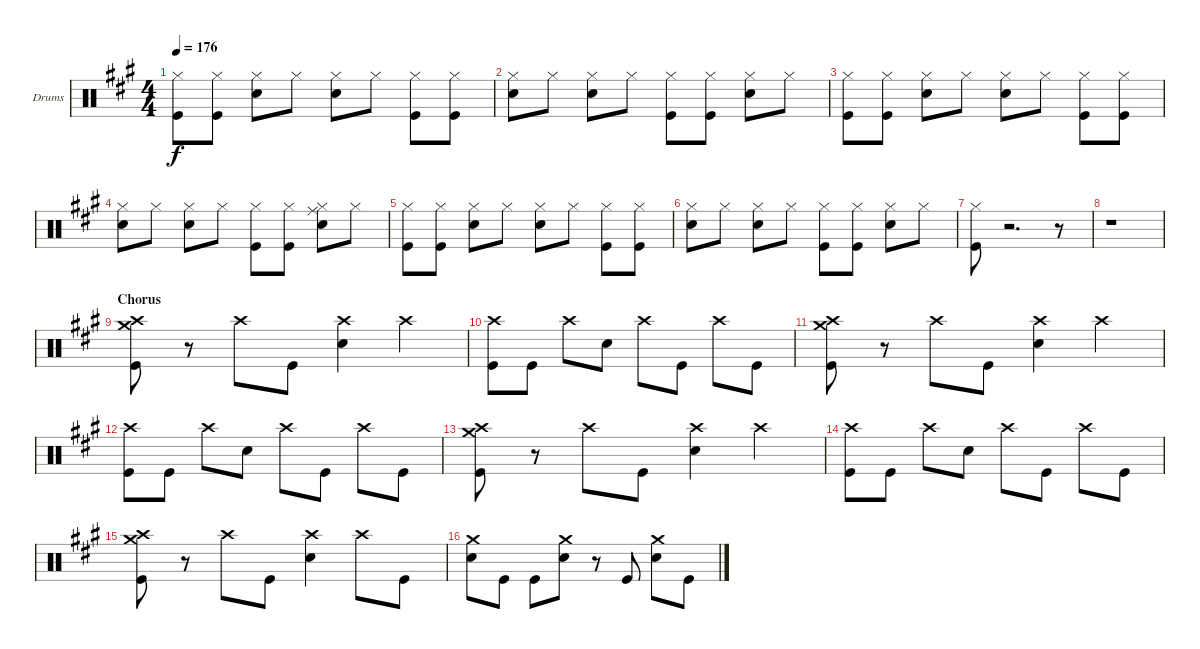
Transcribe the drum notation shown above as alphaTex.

\defaultSystemsLayout 4
\bracketExtendMode groupsimilarinstruments
\firstSystemTrackNameOrientation horizontal
\otherSystemsTrackNameOrientation horizontal
\track ("Drumkit" "Drums") {instrument percussion}
\staff {score}
\articulation defaults
\ts (4 4)
\tempo 176
\clef neutral
\scale
0.333333
\ks a
("Hi-Hat (closed)" "Kick (hit)").8{dy f} ("Hi-Hat (closed)" "Kick (hit)").8 ("Hi-Hat (closed)" "Snare (hit) 2").8 "Hi-Hat (closed)".8 ("Hi-Hat (closed)" "Snare (hit) 2").8 "Hi-Hat (closed)".8 ("Hi-Hat (closed)" "Kick (hit)").8 ("Hi-Hat (closed)" "Kick (hit)").8 |
\scale
0.333333 ("Hi-Hat (closed)" "Snare (hit) 2").8 "Hi-Hat (closed)".8 ("Hi-Hat (closed)" "Snare (hit) 2").8 "Hi-Hat (closed)".8 ("Hi-Hat (closed)" "Kick (hit)").8 ("Hi-Hat (closed)" "Kick (hit)").8 ("Hi-Hat (closed)" "Snare (hit) 2").8 "Hi-Hat (closed)".8 |
\scale
0.333333 ("Hi-Hat (closed)" "Kick (hit)").8 ("Hi-Hat (closed)" "Kick (hit)").8 ("Hi-Hat (closed)" "Snare (hit) 2").8 "Hi-Hat (closed)".8 ("Hi-Hat (closed)" "Snare (hit) 2").8 "Hi-Hat (closed)".8 ("Hi-Hat (closed)" "Kick (hit)").8 ("Hi-Hat (closed)" "Kick (hit)").8 |
\scale
0.333333 ("Hi-Hat (closed)" "Snare (hit) 2").8 "Hi-Hat (closed)".8 ("Hi-Hat (closed)" "Snare (hit) 2").8 "Hi-Hat (closed)".8 ("Hi-Hat (closed)" "Kick (hit)").8 ("Hi-Hat (closed)" "Kick (hit)").8 ("Hi-Hat (closed)" "Ride (middle)" "Snare (hit) 2").8 "Hi-Hat (closed)".8 |
\scale
0.333333 ("Hi-Hat (closed)" "Kick (hit)").8 ("Hi-Hat (closed)" "Kick (hit)").8 ("Hi-Hat (closed)" "Snare (hit) 2").8 "Hi-Hat (closed)".8 ("Hi-Hat (closed)" "Snare (hit) 2").8 "Hi-Hat (closed)".8 ("Hi-Hat (closed)" "Kick (hit)").8 ("Hi-Hat (closed)" "Kick (hit)").8 |
\scale
0.333333 ("Hi-Hat (closed)" "Snare (hit) 2").8 "Hi-Hat (closed)".8 ("Hi-Hat (closed)" "Snare (hit) 2").8 "Hi-Hat (closed)".8 ("Hi-Hat (closed)" "Kick (hit)").8 ("Hi-Hat (closed)" "Kick (hit)").8 ("Hi-Hat (closed)" "Snare (hit) 2").8 "Hi-Hat (closed)".8 |
\scale
0.333333 ("Hi-Hat (closed)" "Kick (hit)").8 r.2{d} r.8 |
\scale
0.333333 r.1 |
\section ("" "Chorus")
\scale
0.333333 ("Crash high (hit)" "Crash medium (hit)" "Kick (hit)").8 r.8 "Crash high (hit)".8 "Kick (hit)".8 ("Crash high (hit)" "Snare (hit) 2").4 "Crash high (hit)".4 |
\scale
0.333333 ("Crash high (hit)" "Kick (hit)").8 "Kick (hit)".8 "Crash high (hit)".8 "Snare (hit) 2".8 "Crash high (hit)".8 "Kick (hit)".8 "Crash high (hit)".8 "Kick (hit)".8 |
\scale
0.333333 ("Crash high (hit)" "Crash medium (hit)" "Kick (hit)").8 r.8 "Crash high (hit)".8 "Kick (hit)".8 ("Crash high (hit)" "Snare (hit) 2").4 "Crash high (hit)".4 |
\scale
0.333333 ("Crash high (hit)" "Kick (hit)").8 "Kick (hit)".8 "Crash high (hit)".8 "Snare (hit) 2".8 "Crash high (hit)".8 "Kick (hit)".8 "Crash high (hit)".8 "Kick (hit)".8 |
\scale
0.333333 ("Crash high (hit)" "Crash medium (hit)" "Kick (hit)").8 r.8 "Crash high (hit)".8 "Kick (hit)".8 ("Crash high (hit)" "Snare (hit) 2").4 "Crash high (hit)".4 |
\scale
0.333333 ("Crash high (hit)" "Kick (hit)").8 "Kick (hit)".8 "Crash high (hit)".8 "Snare (hit) 2".8 "Crash high (hit)".8 "Kick (hit)".8 "Crash high (hit)".8 "Kick (hit)".8 |
\scale
0.333333 ("Crash high (hit)" "Crash medium (hit)" "Kick (hit)").8 r.8 "Crash high (hit)".8 "Kick (hit)".8 ("Crash high (hit)" "Snare (hit) 2").4 "Crash high (hit)".8 "Kick (hit)".8 |
\scale
0.333333 ("Crash medium (hit)" "Snare (hit) 2").8 "Kick (hit)".8 "Kick (hit)".8 ("Crash medium (hit)" "Snare (hit) 2").8 r.8 "Kick (hit)".8 ("Crash medium (hit)" "Snare (hit) 2").8 "Kick (hit)".8
